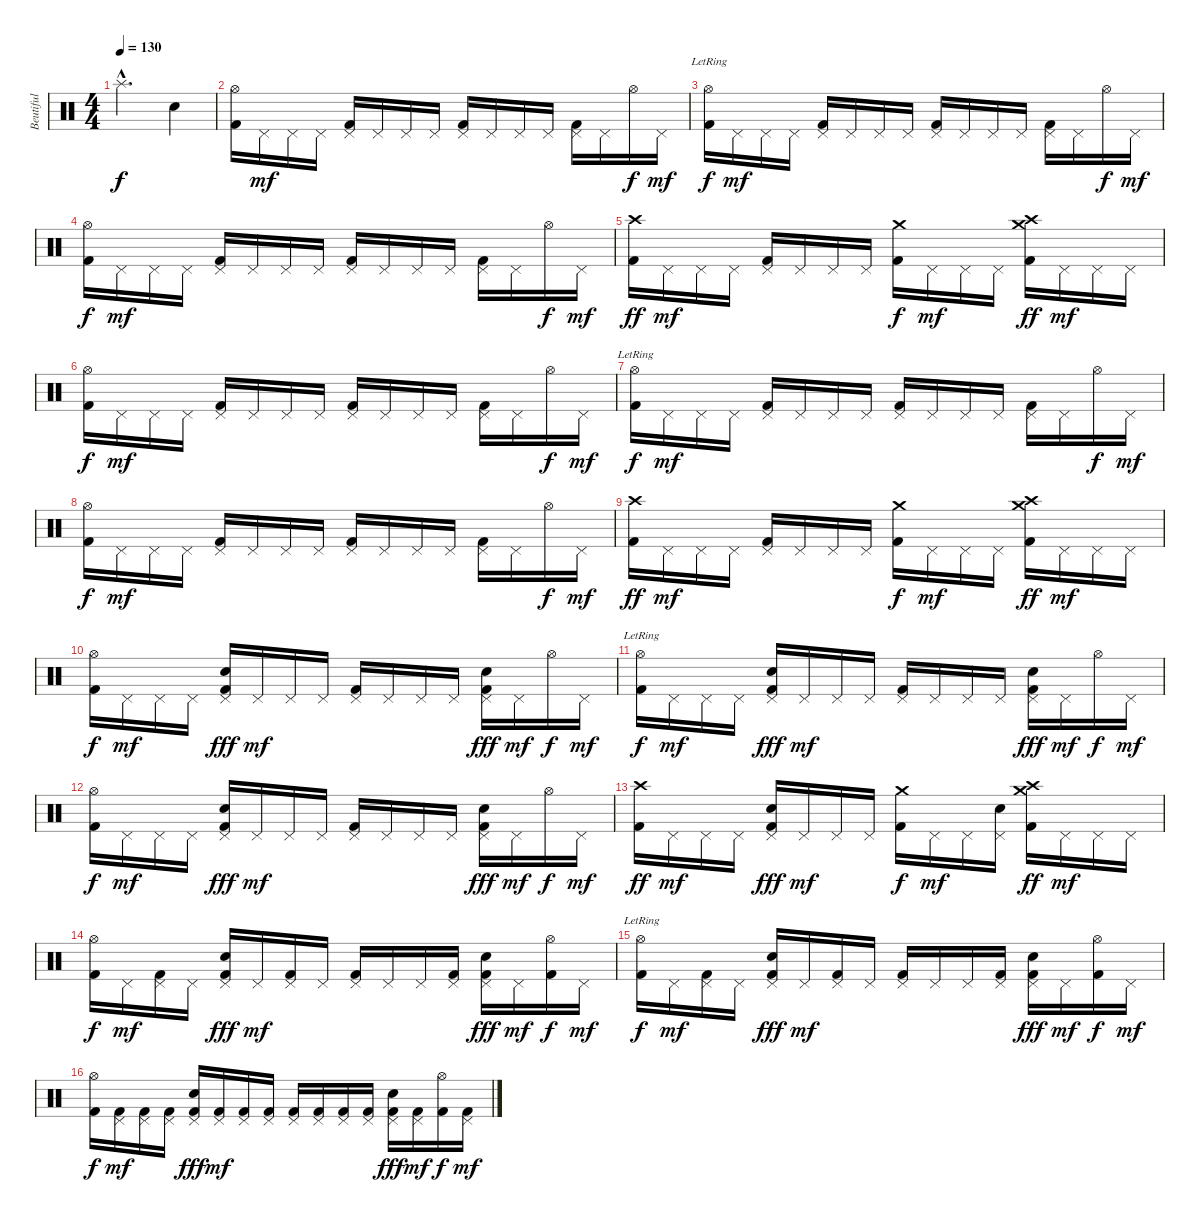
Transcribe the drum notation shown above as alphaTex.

\track ("Beutiful" "Beutiful") {instrument percussion}
\staff {score}
\articulation defaults
\ts (4 4)
\tempo 130
\clef neutral
\ks c "Splash (hit)"{hac}.2{d dy f} "Electric Snare (hit)".4
|
("Hi-Hat (open)" "Kick (hit) 2").16 "Pedal Hi-Hat (hit)".16{dy mf} "Pedal Hi-Hat (hit)".16 "Pedal Hi-Hat (hit)".16 ("Pedal Hi-Hat (hit)" "Kick (hit) 2").16 "Pedal Hi-Hat (hit)".16 "Pedal Hi-Hat (hit)".16 "Pedal Hi-Hat (hit)".16 ("Pedal Hi-Hat (hit)" "Kick (hit) 2").16 "Pedal Hi-Hat (hit)".16 "Pedal Hi-Hat (hit)".16 "Pedal Hi-Hat (hit)".16 ("Pedal Hi-Hat (hit)" "Kick (hit) 2").16 "Pedal Hi-Hat (hit)".16 "Hi-Hat (open)".16{dy f} "Pedal Hi-Hat (hit)".16{dy mf} |
("Hi-Hat (open)" "Kick (hit) 2"{lr}).16{dy f} "Pedal Hi-Hat (hit)".16{dy mf} "Pedal Hi-Hat (hit)".16 "Pedal Hi-Hat (hit)".16 ("Pedal Hi-Hat (hit)" "Kick (hit) 2").16 "Pedal Hi-Hat (hit)".16 "Pedal Hi-Hat (hit)".16 "Pedal Hi-Hat (hit)".16 ("Pedal Hi-Hat (hit)" "Kick (hit) 2").16 "Pedal Hi-Hat (hit)".16 "Pedal Hi-Hat (hit)".16 "Pedal Hi-Hat (hit)".16 ("Pedal Hi-Hat (hit)" "Kick (hit) 2").16 "Pedal Hi-Hat (hit)".16 "Hi-Hat (open)".16{dy f} "Pedal Hi-Hat (hit)".16{dy mf} |
("Hi-Hat (open)" "Kick (hit) 2").16{dy f} "Pedal Hi-Hat (hit)".16{dy mf} "Pedal Hi-Hat (hit)".16 "Pedal Hi-Hat (hit)".16 ("Pedal Hi-Hat (hit)" "Kick (hit) 2").16 "Pedal Hi-Hat (hit)".16 "Pedal Hi-Hat (hit)".16 "Pedal Hi-Hat (hit)".16 ("Pedal Hi-Hat (hit)" "Kick (hit) 2").16 "Pedal Hi-Hat (hit)".16 "Pedal Hi-Hat (hit)".16 "Pedal Hi-Hat (hit)".16 ("Pedal Hi-Hat (hit)" "Kick (hit) 2").16 "Pedal Hi-Hat (hit)".16 "Hi-Hat (open)".16{dy f} "Pedal Hi-Hat (hit)".16{dy mf} |
("Crash high (hit)" "Kick (hit) 2").16{dy ff} "Pedal Hi-Hat (hit)".16{dy mf} "Pedal Hi-Hat (hit)".16 "Pedal Hi-Hat (hit)".16 ("Pedal Hi-Hat (hit)" "Kick (hit) 2").16 "Pedal Hi-Hat (hit)".16 "Pedal Hi-Hat (hit)".16 "Pedal Hi-Hat (hit)".16 ("Crash medium (hit)" "Kick (hit) 2").16{dy f} "Pedal Hi-Hat (hit)".16{dy mf} "Pedal Hi-Hat (hit)".16 "Pedal Hi-Hat (hit)".16 ("Crash high (hit)" "Crash medium (hit)" "Kick (hit) 2").16{dy ff} "Pedal Hi-Hat (hit)".16{dy mf} "Pedal Hi-Hat (hit)".16 "Pedal Hi-Hat (hit)".16 |
("Hi-Hat (open)" "Kick (hit) 2").16{dy f} "Pedal Hi-Hat (hit)".16{dy mf} "Pedal Hi-Hat (hit)".16 "Pedal Hi-Hat (hit)".16 ("Pedal Hi-Hat (hit)" "Kick (hit) 2").16 "Pedal Hi-Hat (hit)".16 "Pedal Hi-Hat (hit)".16 "Pedal Hi-Hat (hit)".16 ("Pedal Hi-Hat (hit)" "Kick (hit) 2").16 "Pedal Hi-Hat (hit)".16 "Pedal Hi-Hat (hit)".16 "Pedal Hi-Hat (hit)".16 ("Pedal Hi-Hat (hit)" "Kick (hit) 2").16 "Pedal Hi-Hat (hit)".16 "Hi-Hat (open)".16{dy f} "Pedal Hi-Hat (hit)".16{dy mf} |
("Hi-Hat (open)" "Kick (hit) 2"{lr}).16{dy f} "Pedal Hi-Hat (hit)".16{dy mf} "Pedal Hi-Hat (hit)".16 "Pedal Hi-Hat (hit)".16 ("Pedal Hi-Hat (hit)" "Kick (hit) 2").16 "Pedal Hi-Hat (hit)".16 "Pedal Hi-Hat (hit)".16 "Pedal Hi-Hat (hit)".16 ("Pedal Hi-Hat (hit)" "Kick (hit) 2").16 "Pedal Hi-Hat (hit)".16 "Pedal Hi-Hat (hit)".16 "Pedal Hi-Hat (hit)".16 ("Pedal Hi-Hat (hit)" "Kick (hit) 2").16 "Pedal Hi-Hat (hit)".16 "Hi-Hat (open)".16{dy f} "Pedal Hi-Hat (hit)".16{dy mf} |
("Hi-Hat (open)" "Kick (hit) 2").16{dy f} "Pedal Hi-Hat (hit)".16{dy mf} "Pedal Hi-Hat (hit)".16 "Pedal Hi-Hat (hit)".16 ("Pedal Hi-Hat (hit)" "Kick (hit) 2").16 "Pedal Hi-Hat (hit)".16 "Pedal Hi-Hat (hit)".16 "Pedal Hi-Hat (hit)".16 ("Pedal Hi-Hat (hit)" "Kick (hit) 2").16 "Pedal Hi-Hat (hit)".16 "Pedal Hi-Hat (hit)".16 "Pedal Hi-Hat (hit)".16 ("Pedal Hi-Hat (hit)" "Kick (hit) 2").16 "Pedal Hi-Hat (hit)".16 "Hi-Hat (open)".16{dy f} "Pedal Hi-Hat (hit)".16{dy mf} |
("Crash high (hit)" "Kick (hit) 2").16{dy ff} "Pedal Hi-Hat (hit)".16{dy mf} "Pedal Hi-Hat (hit)".16 "Pedal Hi-Hat (hit)".16 ("Pedal Hi-Hat (hit)" "Kick (hit) 2").16 "Pedal Hi-Hat (hit)".16 "Pedal Hi-Hat (hit)".16 "Pedal Hi-Hat (hit)".16 ("Crash medium (hit)" "Kick (hit) 2").16{dy f} "Pedal Hi-Hat (hit)".16{dy mf} "Pedal Hi-Hat (hit)".16 "Pedal Hi-Hat (hit)".16 ("Crash high (hit)" "Crash medium (hit)" "Kick (hit) 2").16{dy ff} "Pedal Hi-Hat (hit)".16{dy mf} "Pedal Hi-Hat (hit)".16 "Pedal Hi-Hat (hit)".16 |
("Hi-Hat (open)" "Kick (hit) 2").16{dy f} "Pedal Hi-Hat (hit)".16{dy mf} "Pedal Hi-Hat (hit)".16 "Pedal Hi-Hat (hit)".16 ("Pedal Hi-Hat (hit)" "Electric Snare (hit)" "Kick (hit) 2").16{dy fff} "Pedal Hi-Hat (hit)".16{dy mf} "Pedal Hi-Hat (hit)".16 "Pedal Hi-Hat (hit)".16 ("Pedal Hi-Hat (hit)" "Kick (hit) 2").16 "Pedal Hi-Hat (hit)".16 "Pedal Hi-Hat (hit)".16 "Pedal Hi-Hat (hit)".16 ("Pedal Hi-Hat (hit)" "Electric Snare (hit)" "Kick (hit) 2").16{dy fff} "Pedal Hi-Hat (hit)".16{dy mf} "Hi-Hat (open)".16{dy f} "Pedal Hi-Hat (hit)".16{dy mf} |
("Hi-Hat (open)" "Kick (hit) 2"{lr}).16{dy f} "Pedal Hi-Hat (hit)".16{dy mf} "Pedal Hi-Hat (hit)".16 "Pedal Hi-Hat (hit)".16 ("Pedal Hi-Hat (hit)" "Electric Snare (hit)" "Kick (hit) 2").16{dy fff} "Pedal Hi-Hat (hit)".16{dy mf} "Pedal Hi-Hat (hit)".16 "Pedal Hi-Hat (hit)".16 ("Pedal Hi-Hat (hit)" "Kick (hit) 2").16 "Pedal Hi-Hat (hit)".16 "Pedal Hi-Hat (hit)".16 "Pedal Hi-Hat (hit)".16 ("Pedal Hi-Hat (hit)" "Electric Snare (hit)" "Kick (hit) 2").16{dy fff} "Pedal Hi-Hat (hit)".16{dy mf} "Hi-Hat (open)".16{dy f} "Pedal Hi-Hat (hit)".16{dy mf} |
("Hi-Hat (open)" "Kick (hit) 2").16{dy f} "Pedal Hi-Hat (hit)".16{dy mf} "Pedal Hi-Hat (hit)".16 "Pedal Hi-Hat (hit)".16 ("Pedal Hi-Hat (hit)" "Electric Snare (hit)" "Kick (hit) 2").16{dy fff} "Pedal Hi-Hat (hit)".16{dy mf} "Pedal Hi-Hat (hit)".16 "Pedal Hi-Hat (hit)".16 ("Pedal Hi-Hat (hit)" "Kick (hit) 2").16 "Pedal Hi-Hat (hit)".16 "Pedal Hi-Hat (hit)".16 "Pedal Hi-Hat (hit)".16 ("Pedal Hi-Hat (hit)" "Electric Snare (hit)" "Kick (hit) 2").16{dy fff} "Pedal Hi-Hat (hit)".16{dy mf} "Hi-Hat (open)".16{dy f} "Pedal Hi-Hat (hit)".16{dy mf} |
("Crash high (hit)" "Kick (hit) 2").16{dy ff} "Pedal Hi-Hat (hit)".16{dy mf} "Pedal Hi-Hat (hit)".16 "Pedal Hi-Hat (hit)".16 ("Pedal Hi-Hat (hit)" "Electric Snare (hit)" "Kick (hit) 2").16{dy fff} "Pedal Hi-Hat (hit)".16{dy mf} "Pedal Hi-Hat (hit)".16 "Pedal Hi-Hat (hit)".16 ("Crash medium (hit)" "Kick (hit) 2").16{dy f} "Pedal Hi-Hat (hit)".16{dy mf} "Pedal Hi-Hat (hit)".16 ("Pedal Hi-Hat (hit)" "Electric Snare (hit)").16 ("Crash high (hit)" "Crash medium (hit)" "Kick (hit) 2").16{dy ff} "Pedal Hi-Hat (hit)".16{dy mf} "Pedal Hi-Hat (hit)".16 "Pedal Hi-Hat (hit)".16 |
("Hi-Hat (open)" "Kick (hit) 2").16{dy f} "Pedal Hi-Hat (hit)".16{dy mf} ("Pedal Hi-Hat (hit)" "Kick (hit) 2").16 "Pedal Hi-Hat (hit)".16 ("Pedal Hi-Hat (hit)" "Electric Snare (hit)" "Kick (hit) 2").16{dy fff} "Pedal Hi-Hat (hit)".16{dy mf} ("Pedal Hi-Hat (hit)" "Kick (hit) 2").16 "Pedal Hi-Hat (hit)".16 ("Pedal Hi-Hat (hit)" "Kick (hit) 2").16 "Pedal Hi-Hat (hit)".16 "Pedal Hi-Hat (hit)".16 ("Pedal Hi-Hat (hit)" "Kick (hit) 2").16 ("Pedal Hi-Hat (hit)" "Electric Snare (hit)" "Kick (hit) 2").16{dy fff} "Pedal Hi-Hat (hit)".16{dy mf} ("Hi-Hat (open)" "Kick (hit) 2").16{dy f} "Pedal Hi-Hat (hit)".16{dy mf} |
("Hi-Hat (open)" "Kick (hit) 2"{lr}).16{dy f} "Pedal Hi-Hat (hit)".16{dy mf} ("Pedal Hi-Hat (hit)" "Kick (hit) 2").16 "Pedal Hi-Hat (hit)".16 ("Pedal Hi-Hat (hit)" "Electric Snare (hit)" "Kick (hit) 2").16{dy fff} "Pedal Hi-Hat (hit)".16{dy mf} ("Pedal Hi-Hat (hit)" "Kick (hit) 2").16 "Pedal Hi-Hat (hit)".16 ("Pedal Hi-Hat (hit)" "Kick (hit) 2").16 "Pedal Hi-Hat (hit)".16 "Pedal Hi-Hat (hit)".16 ("Pedal Hi-Hat (hit)" "Kick (hit) 2").16 ("Pedal Hi-Hat (hit)" "Electric Snare (hit)" "Kick (hit) 2").16{dy fff} "Pedal Hi-Hat (hit)".16{dy mf} ("Hi-Hat (open)" "Kick (hit) 2").16{dy f} "Pedal Hi-Hat (hit)".16{dy mf} |
("Hi-Hat (open)" "Kick (hit) 2").16{dy f} ("Pedal Hi-Hat (hit)" "Kick (hit) 2").16{dy mf} ("Pedal Hi-Hat (hit)" "Kick (hit) 2").16 ("Pedal Hi-Hat (hit)" "Kick (hit) 2").16 ("Pedal Hi-Hat (hit)" "Electric Snare (hit)" "Kick (hit) 2").16{dy fff} ("Pedal Hi-Hat (hit)" "Kick (hit) 2").16{dy mf} ("Pedal Hi-Hat (hit)" "Kick (hit) 2").16 ("Pedal Hi-Hat (hit)" "Kick (hit) 2").16 ("Pedal Hi-Hat (hit)" "Kick (hit) 2").16 ("Pedal Hi-Hat (hit)" "Kick (hit) 2").16 ("Pedal Hi-Hat (hit)" "Kick (hit) 2").16 ("Pedal Hi-Hat (hit)" "Kick (hit) 2").16 ("Pedal Hi-Hat (hit)" "Electric Snare (hit)" "Kick (hit) 2").16{dy fff} ("Pedal Hi-Hat (hit)" "Kick (hit) 2").16{dy mf} ("Hi-Hat (open)" "Kick (hit) 2").16{dy f} ("Pedal Hi-Hat (hit)" "Kick (hit) 2").16{dy mf}
